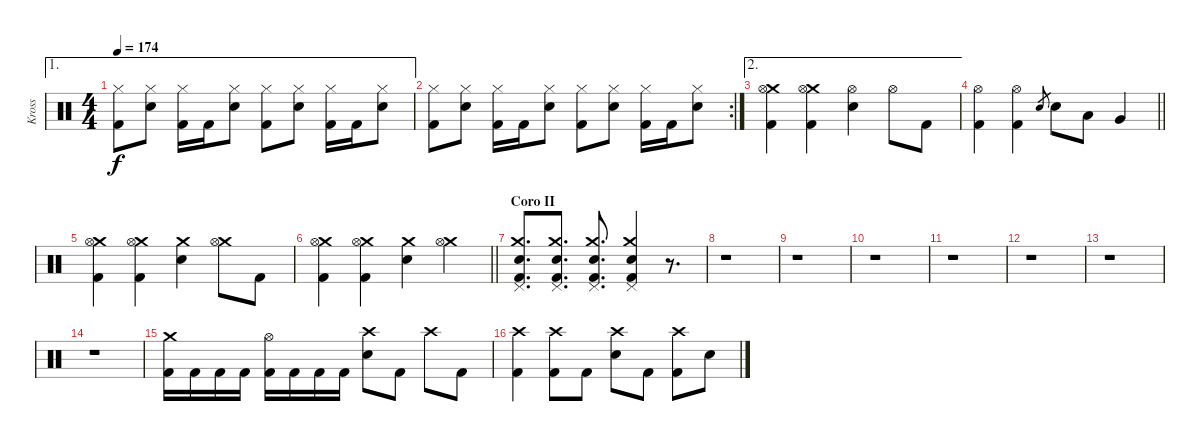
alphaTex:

\track ("Kross" "Kross") {instrument percussion}
\staff {score}
\articulation defaults
\ae 1
\ts (4 4)
\tempo 174
\clef neutral
\ks c
("Hi-Hat (closed)" "Kick (hit) 2").8{dy f} ("Hi-Hat (closed)" "Electric Snare (hit)").8 ("Hi-Hat (closed)" "Kick (hit) 2").16 "Kick (hit) 2".16 ("Hi-Hat (closed)" "Electric Snare (hit)").8 ("Hi-Hat (closed)" "Kick (hit) 2").8 ("Hi-Hat (closed)" "Electric Snare (hit)").8 ("Hi-Hat (closed)" "Kick (hit) 2").16 "Kick (hit) 2".16 ("Hi-Hat (closed)" "Electric Snare (hit)").8 |
\rc 2
("Hi-Hat (closed)" "Kick (hit) 2").8 ("Hi-Hat (closed)" "Electric Snare (hit)").8 ("Hi-Hat (closed)" "Kick (hit) 2").16 "Kick (hit) 2".16 ("Hi-Hat (closed)" "Electric Snare (hit)").8 ("Hi-Hat (closed)" "Kick (hit) 2").8 ("Hi-Hat (closed)" "Electric Snare (hit)").8 ("Hi-Hat (closed)" "Kick (hit) 2").16 "Kick (hit) 2".16 ("Hi-Hat (closed)" "Electric Snare (hit)").8 |
\ae 2
("Crash medium (hit)" "Hi-Hat (open)" "Kick (hit) 2").4 ("Crash medium (hit)" "Hi-Hat (open)" "Kick (hit) 2").4 ("Hi-Hat (open)" "Electric Snare (hit)").4 "Hi-Hat (open)".8 "Kick (hit) 2".8 |
\barLineRight lightlight
("Hi-Hat (open)" "Kick (hit) 2").4 ("Hi-Hat (open)" "Kick (hit) 2").4 "Electric Snare (hit)".8{gr} "Electric Snare (hit)".8 "Low Tom (hit)".8 "Very Low Tom (hit)".4 |
("Crash medium (hit)" "Hi-Hat (open)" "Kick (hit) 2").4 ("Crash medium (hit)" "Hi-Hat (open)" "Kick (hit) 2").4 ("Crash medium (hit)" "Electric Snare (hit)").4 ("Crash medium (hit)" "Hi-Hat (open)").8 "Kick (hit) 2".8 |
\barLineRight lightlight
("Crash medium (hit)" "Hi-Hat (open)" "Kick (hit) 2").4 ("Crash medium (hit)" "Hi-Hat (open)" "Kick (hit) 2").4 ("Crash medium (hit)" "Electric Snare (hit)").4 ("Crash medium (hit)" "Hi-Hat (open)").4 |
\section ("" "Coro II")
("Crash medium (hit)" "Pedal Hi-Hat (hit)" "Electric Snare (hit)" "Kick (hit) 2").8{d} ("Crash medium (hit)" "Pedal Hi-Hat (hit)" "Electric Snare (hit)" "Kick (hit) 2").8{d} ("Crash medium (hit)" "Pedal Hi-Hat (hit)" "Electric Snare (hit)" "Kick (hit) 2").8{d} ("Crash medium (hit)" "Pedal Hi-Hat (hit)" "Electric Snare (hit)" "Kick (hit) 2").4 r.8{d volume 0} |
r.1 |
r.1 |
r.1 |
r.1 |
r.1 |
r.1 |
r.1{volume 16} |
("Crash medium (hit)" "Kick (hit) 2").16 "Kick (hit) 2".16 "Kick (hit) 2".16 "Kick (hit) 2".16 ("Hi-Hat (open)" "Kick (hit) 2").16 "Kick (hit) 2".16 "Kick (hit) 2".16 "Kick (hit) 2".16 ("Crash high (hit)" "Electric Snare (hit)").8 "Kick (hit) 2".8 "Crash high (hit)".8 "Kick (hit) 2".8 |
("Crash high (hit)" "Kick (hit) 2").4 ("Crash high (hit)" "Kick (hit) 2").8 "Kick (hit) 2".8 ("Crash high (hit)" "Electric Snare (hit)").8 "Kick (hit) 2".8 ("Crash high (hit)" "Kick (hit) 2").8 "Electric Snare (hit)".8
